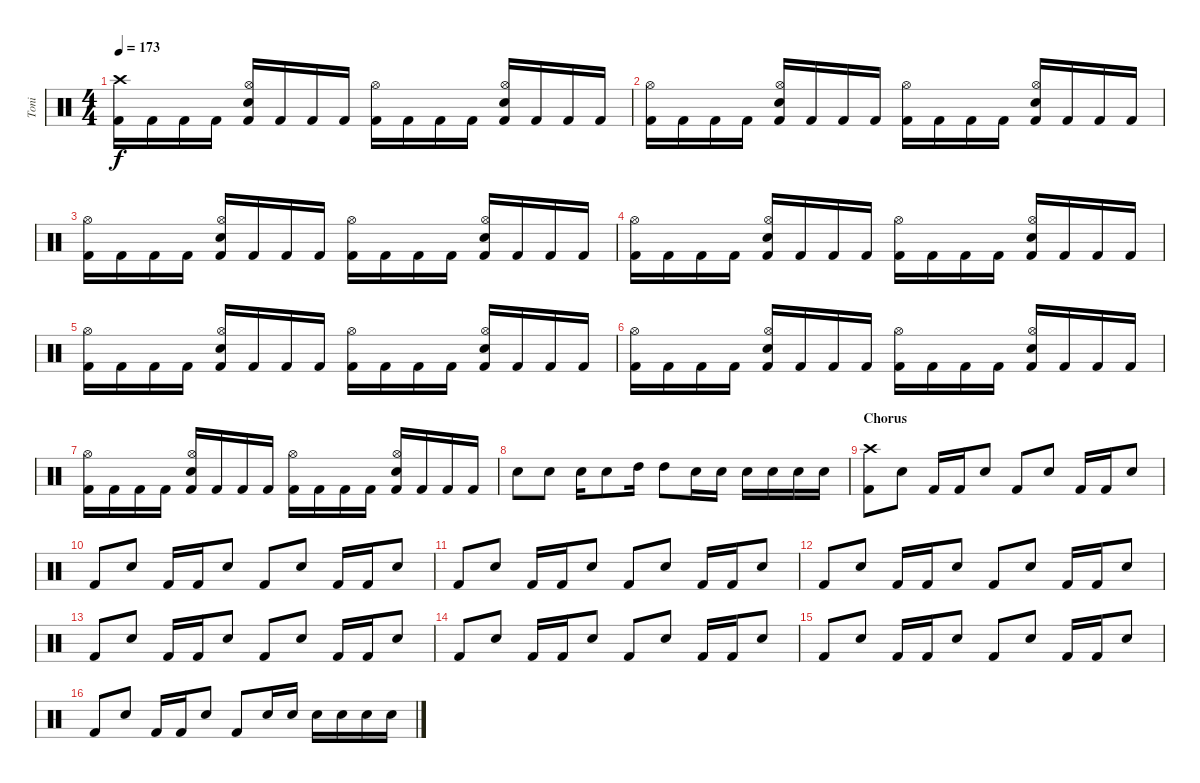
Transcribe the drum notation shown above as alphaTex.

\track ("Toni" "Toni") {instrument percussion}
\staff {score}
\articulation defaults
\ts (4 4)
\tempo 173
\clef neutral
\ks c
("Crash high (hit)" "Kick (hit) 2").16{dy f} "Kick (hit) 2".16 "Kick (hit) 2".16 "Kick (hit) 2".16 ("Hi-Hat (open)" "Electric Snare (hit)" "Kick (hit) 2").16 "Kick (hit) 2".16 "Kick (hit) 2".16 "Kick (hit) 2".16 ("Hi-Hat (open)" "Kick (hit) 2").16 "Kick (hit) 2".16 "Kick (hit) 2".16 "Kick (hit) 2".16 ("Hi-Hat (open)" "Electric Snare (hit)" "Kick (hit) 2").16 "Kick (hit) 2".16 "Kick (hit) 2".16 "Kick (hit) 2".16 |
("Hi-Hat (open)" "Kick (hit) 2").16 "Kick (hit) 2".16 "Kick (hit) 2".16 "Kick (hit) 2".16 ("Hi-Hat (open)" "Electric Snare (hit)" "Kick (hit) 2").16 "Kick (hit) 2".16 "Kick (hit) 2".16 "Kick (hit) 2".16 ("Hi-Hat (open)" "Kick (hit) 2").16 "Kick (hit) 2".16 "Kick (hit) 2".16 "Kick (hit) 2".16 ("Hi-Hat (open)" "Electric Snare (hit)" "Kick (hit) 2").16 "Kick (hit) 2".16 "Kick (hit) 2".16 "Kick (hit) 2".16 |
("Hi-Hat (open)" "Kick (hit) 2").16 "Kick (hit) 2".16 "Kick (hit) 2".16 "Kick (hit) 2".16 ("Hi-Hat (open)" "Electric Snare (hit)" "Kick (hit) 2").16 "Kick (hit) 2".16 "Kick (hit) 2".16 "Kick (hit) 2".16 ("Hi-Hat (open)" "Kick (hit) 2").16 "Kick (hit) 2".16 "Kick (hit) 2".16 "Kick (hit) 2".16 ("Hi-Hat (open)" "Electric Snare (hit)" "Kick (hit) 2").16 "Kick (hit) 2".16 "Kick (hit) 2".16 "Kick (hit) 2".16 |
("Hi-Hat (open)" "Kick (hit) 2").16 "Kick (hit) 2".16 "Kick (hit) 2".16 "Kick (hit) 2".16 ("Hi-Hat (open)" "Electric Snare (hit)" "Kick (hit) 2").16 "Kick (hit) 2".16 "Kick (hit) 2".16 "Kick (hit) 2".16 ("Hi-Hat (open)" "Kick (hit) 2").16 "Kick (hit) 2".16 "Kick (hit) 2".16 "Kick (hit) 2".16 ("Hi-Hat (open)" "Electric Snare (hit)" "Kick (hit) 2").16 "Kick (hit) 2".16 "Kick (hit) 2".16 "Kick (hit) 2".16 |
("Hi-Hat (open)" "Kick (hit) 2").16 "Kick (hit) 2".16 "Kick (hit) 2".16 "Kick (hit) 2".16 ("Hi-Hat (open)" "Electric Snare (hit)" "Kick (hit) 2").16 "Kick (hit) 2".16 "Kick (hit) 2".16 "Kick (hit) 2".16 ("Hi-Hat (open)" "Kick (hit) 2").16 "Kick (hit) 2".16 "Kick (hit) 2".16 "Kick (hit) 2".16 ("Hi-Hat (open)" "Electric Snare (hit)" "Kick (hit) 2").16 "Kick (hit) 2".16 "Kick (hit) 2".16 "Kick (hit) 2".16 |
("Hi-Hat (open)" "Kick (hit) 2").16 "Kick (hit) 2".16 "Kick (hit) 2".16 "Kick (hit) 2".16 ("Hi-Hat (open)" "Electric Snare (hit)" "Kick (hit) 2").16 "Kick (hit) 2".16 "Kick (hit) 2".16 "Kick (hit) 2".16 ("Hi-Hat (open)" "Kick (hit) 2").16 "Kick (hit) 2".16 "Kick (hit) 2".16 "Kick (hit) 2".16 ("Hi-Hat (open)" "Electric Snare (hit)" "Kick (hit) 2").16 "Kick (hit) 2".16 "Kick (hit) 2".16 "Kick (hit) 2".16 |
("Hi-Hat (open)" "Kick (hit) 2").16 "Kick (hit) 2".16 "Kick (hit) 2".16 "Kick (hit) 2".16 ("Hi-Hat (open)" "Electric Snare (hit)" "Kick (hit) 2").16 "Kick (hit) 2".16 "Kick (hit) 2".16 "Kick (hit) 2".16 ("Hi-Hat (open)" "Kick (hit) 2").16 "Kick (hit) 2".16 "Kick (hit) 2".16 "Kick (hit) 2".16 ("Hi-Hat (open)" "Electric Snare (hit)" "Kick (hit) 2").16 "Kick (hit) 2".16 "Kick (hit) 2".16 "Kick (hit) 2".16 |
"Electric Snare (hit)".8 "Electric Snare (hit)".8 "Electric Snare (hit)".16 "Electric Snare (hit)".8 "High Tom (hit)".16 "High Tom (hit)".8 "Electric Snare (hit)".16 "Electric Snare (hit)".16 "Electric Snare (hit)".16 "Electric Snare (hit)".16 "Electric Snare (hit)".16 "Electric Snare (hit)".16 |
\section ("" "Chorus")
("Crash high (hit)" "Kick (hit) 2").8 "Electric Snare (hit)".8 "Kick (hit) 2".16 "Kick (hit) 2".16 "Electric Snare (hit)".8 "Kick (hit) 2".8 "Electric Snare (hit)".8 "Kick (hit) 2".16 "Kick (hit) 2".16 "Electric Snare (hit)".8 |
"Kick (hit) 2".8 "Electric Snare (hit)".8 "Kick (hit) 2".16 "Kick (hit) 2".16 "Electric Snare (hit)".8 "Kick (hit) 2".8 "Electric Snare (hit)".8 "Kick (hit) 2".16 "Kick (hit) 2".16 "Electric Snare (hit)".8 |
"Kick (hit) 2".8 "Electric Snare (hit)".8 "Kick (hit) 2".16 "Kick (hit) 2".16 "Electric Snare (hit)".8 "Kick (hit) 2".8 "Electric Snare (hit)".8 "Kick (hit) 2".16 "Kick (hit) 2".16 "Electric Snare (hit)".8 |
"Kick (hit) 2".8 "Electric Snare (hit)".8 "Kick (hit) 2".16 "Kick (hit) 2".16 "Electric Snare (hit)".8 "Kick (hit) 2".8 "Electric Snare (hit)".8 "Kick (hit) 2".16 "Kick (hit) 2".16 "Electric Snare (hit)".8 |
"Kick (hit) 2".8 "Electric Snare (hit)".8 "Kick (hit) 2".16 "Kick (hit) 2".16 "Electric Snare (hit)".8 "Kick (hit) 2".8 "Electric Snare (hit)".8 "Kick (hit) 2".16 "Kick (hit) 2".16 "Electric Snare (hit)".8 |
"Kick (hit) 2".8 "Electric Snare (hit)".8 "Kick (hit) 2".16 "Kick (hit) 2".16 "Electric Snare (hit)".8 "Kick (hit) 2".8 "Electric Snare (hit)".8 "Kick (hit) 2".16 "Kick (hit) 2".16 "Electric Snare (hit)".8 |
"Kick (hit) 2".8 "Electric Snare (hit)".8 "Kick (hit) 2".16 "Kick (hit) 2".16 "Electric Snare (hit)".8 "Kick (hit) 2".8 "Electric Snare (hit)".8 "Kick (hit) 2".16 "Kick (hit) 2".16 "Electric Snare (hit)".8 |
"Kick (hit) 2".8 "Electric Snare (hit)".8 "Kick (hit) 2".16 "Kick (hit) 2".16 "Electric Snare (hit)".8 "Kick (hit) 2".8 "Electric Snare (hit)".16 "Electric Snare (hit)".16 "Electric Snare (hit)".16 "Electric Snare (hit)".16 "Electric Snare (hit)".16 "Electric Snare (hit)".16
